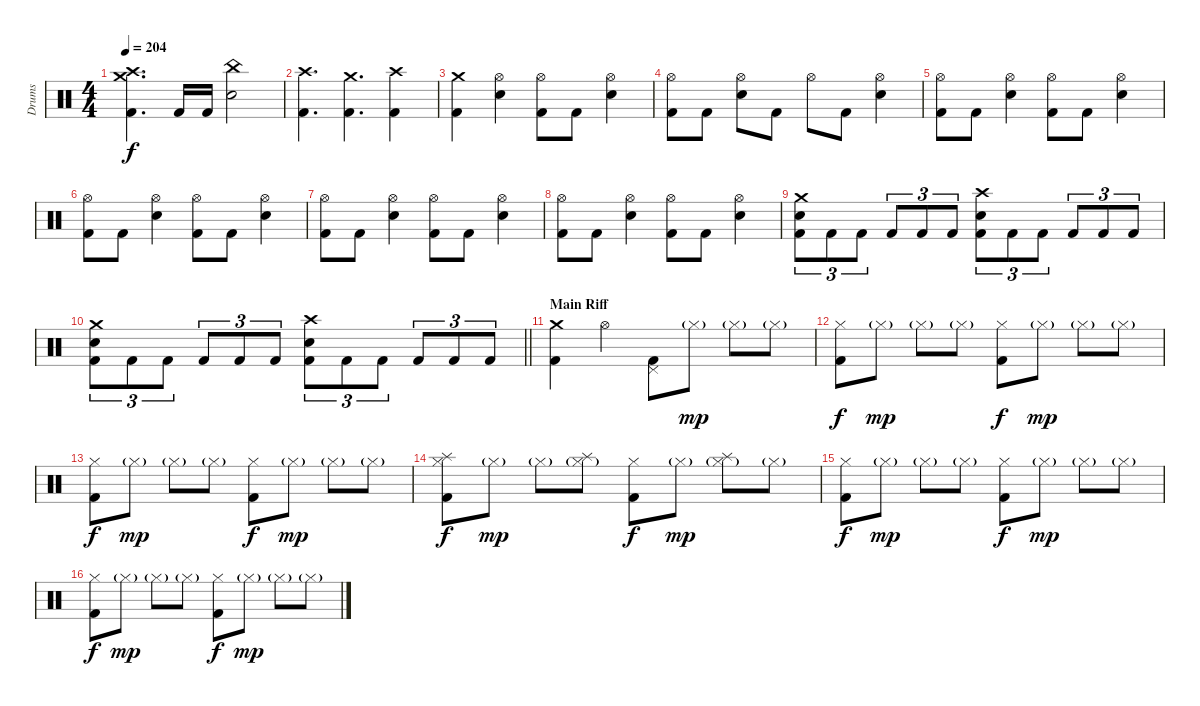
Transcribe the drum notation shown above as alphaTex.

\track ("Drums" "Drums") {instrument percussion}
\staff {score}
\articulation defaults
\ts (4 4)
\tempo 204
\clef neutral
\ks c
("Crash medium (hit)" "Crash high (hit)" "Kick (hit) 2").4{d dy f} "Kick (hit) 2".16 "Kick (hit) 2".16 ("China (hit)" "Electric Snare (hit)").2 |
("Crash high (hit)" "Kick (hit) 2").4{d} ("Crash medium (hit)" "Kick (hit) 2").4{d} ("Crash high (hit)" "Kick (hit) 2").4 |
("Crash medium (hit)" "Kick (hit) 2").4 ("Hi-Hat (open)" "Electric Snare (hit)").4 ("Hi-Hat (open)" "Kick (hit) 2").8 "Kick (hit) 2".8 ("Hi-Hat (open)" "Electric Snare (hit)").4 |
("Hi-Hat (open)" "Kick (hit) 2").8 "Kick (hit) 2".8 ("Hi-Hat (open)" "Electric Snare (hit)").8 "Kick (hit) 2".8 "Hi-Hat (open)".8 "Kick (hit) 2".8 ("Hi-Hat (open)" "Electric Snare (hit)").4 |
("Hi-Hat (open)" "Kick (hit) 2").8 "Kick (hit) 2".8 ("Hi-Hat (open)" "Electric Snare (hit)").4 ("Hi-Hat (open)" "Kick (hit) 2").8 "Kick (hit) 2".8 ("Hi-Hat (open)" "Electric Snare (hit)").4 |
("Hi-Hat (open)" "Kick (hit) 2").8 "Kick (hit) 2".8 ("Hi-Hat (open)" "Electric Snare (hit)").4 ("Hi-Hat (open)" "Kick (hit) 2").8 "Kick (hit) 2".8 ("Hi-Hat (open)" "Electric Snare (hit)").4 |
("Hi-Hat (open)" "Kick (hit) 2").8 "Kick (hit) 2".8 ("Hi-Hat (open)" "Electric Snare (hit)").4 ("Hi-Hat (open)" "Kick (hit) 2").8 "Kick (hit) 2".8 ("Hi-Hat (open)" "Electric Snare (hit)").4 |
("Hi-Hat (open)" "Kick (hit) 2").8 "Kick (hit) 2".8 ("Hi-Hat (open)" "Electric Snare (hit)").4 ("Hi-Hat (open)" "Kick (hit) 2").8 "Kick (hit) 2".8 ("Hi-Hat (open)" "Electric Snare (hit)").4 |
("Crash medium (hit)" "Electric Snare (hit)" "Kick (hit) 2").8{tu (3 2)} "Kick (hit) 2".8{tu (3 2)} "Kick (hit) 2".8{tu (3 2)} "Kick (hit) 2".8{tu (3 2)} "Kick (hit) 2".8{tu (3 2)} "Kick (hit) 2".8{tu (3 2)} ("Crash high (hit)" "Electric Snare (hit)" "Kick (hit) 2").8{tu (3 2)} "Kick (hit) 2".8{tu (3 2)} "Kick (hit) 2".8{tu (3 2)} "Kick (hit) 2".8{tu (3 2)} "Kick (hit) 2".8{tu (3 2)} "Kick (hit) 2".8{tu (3 2)} |
\barLineRight lightlight
("Crash medium (hit)" "Electric Snare (hit)" "Kick (hit) 2").8{tu (3 2)} "Kick (hit) 2".8{tu (3 2)} "Kick (hit) 2".8{tu (3 2)} "Kick (hit) 2".8{tu (3 2)} "Kick (hit) 2".8{tu (3 2)} "Kick (hit) 2".8{tu (3 2)} ("Crash high (hit)" "Electric Snare (hit)" "Kick (hit) 2").8{tu (3 2)} "Kick (hit) 2".8{tu (3 2)} "Kick (hit) 2".8{tu (3 2)} "Kick (hit) 2".8{tu (3 2)} "Kick (hit) 2".8{tu (3 2)} "Kick (hit) 2".8{tu (3 2)} |
\section ("" "Main Riff")
("Crash medium (hit)" "Kick (hit) 2").4 "Hi-Hat (open)".4 ("Pedal Hi-Hat (hit)" "Kick (hit) 2").8 "Hi-Hat (closed)"{g}.8{dy mp} "Hi-Hat (closed)"{g}.8 "Hi-Hat (closed)"{g}.8 |
("Hi-Hat (closed)" "Kick (hit) 2").8{dy f} "Hi-Hat (closed)"{g}.8{dy mp} "Hi-Hat (closed)"{g}.8 "Hi-Hat (closed)"{g}.8 ("Hi-Hat (closed)" "Kick (hit) 2").8{dy f} "Hi-Hat (closed)"{g}.8{dy mp} "Hi-Hat (closed)"{g}.8 "Hi-Hat (closed)"{g}.8 |
("Hi-Hat (closed)" "Kick (hit) 2").8{dy f} "Hi-Hat (closed)"{g}.8{dy mp} "Hi-Hat (closed)"{g}.8 "Hi-Hat (closed)"{g}.8 ("Hi-Hat (closed)" "Kick (hit) 2").8{dy f} "Hi-Hat (closed)"{g}.8{dy mp} "Hi-Hat (closed)"{g}.8 "Hi-Hat (closed)"{g}.8 |
("Splash (hit)" "Hi-Hat (closed)" "Kick (hit) 2").8{dy f} "Hi-Hat (closed)"{g}.8{dy mp} "Hi-Hat (closed)"{g}.8 ("Splash (hit)" "Hi-Hat (closed)"{g}).8 ("Hi-Hat (closed)" "Kick (hit) 2").8{dy f} "Hi-Hat (closed)"{g}.8{dy mp} ("Splash (hit)" "Hi-Hat (closed)"{g}).8 "Hi-Hat (closed)"{g}.8 |
("Hi-Hat (closed)" "Kick (hit) 2").8{dy f} "Hi-Hat (closed)"{g}.8{dy mp} "Hi-Hat (closed)"{g}.8 "Hi-Hat (closed)"{g}.8 ("Hi-Hat (closed)" "Kick (hit) 2").8{dy f} "Hi-Hat (closed)"{g}.8{dy mp} "Hi-Hat (closed)"{g}.8 "Hi-Hat (closed)"{g}.8 |
("Hi-Hat (closed)" "Kick (hit) 2").8{dy f} "Hi-Hat (closed)"{g}.8{dy mp} "Hi-Hat (closed)"{g}.8 "Hi-Hat (closed)"{g}.8 ("Hi-Hat (closed)" "Kick (hit) 2").8{dy f} "Hi-Hat (closed)"{g}.8{dy mp} "Hi-Hat (closed)"{g}.8 "Hi-Hat (closed)"{g}.8
